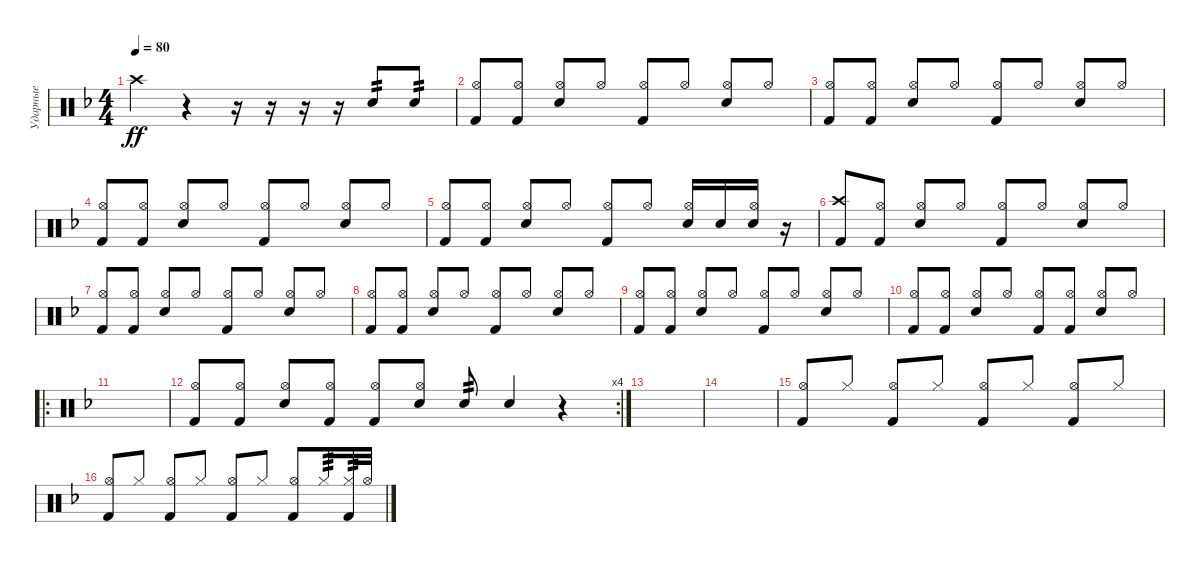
\track ("Ударные" "Ударные") {instrument percussion}
\staff {score}
\articulation defaults
\ts (4 4)
\tempo 80
\clef neutral
\ks f "Crash high (hit)".4{dy ff}
r.4 r.16 r.16 r.16 r.16 "Snare (hit) 2".8{tp 2 beam Up} "Snare (hit) 2".8{tp 2 beam Up} |
("Hi-Hat (open)" "Kick (hit) 2").8{beam Up} ("Hi-Hat (open)" "Kick (hit) 2").8{beam Up} ("Hi-Hat (open)" "Snare (hit) 2").8{beam Up} "Hi-Hat (open)".8{beam Up} ("Hi-Hat (open)" "Kick (hit) 2").8{beam Up} "Hi-Hat (open)".8{beam Up} ("Hi-Hat (open)" "Snare (hit) 2").8{beam Up} "Hi-Hat (open)".8{beam Up} |
("Hi-Hat (open)" "Kick (hit) 2").8{beam Up} ("Hi-Hat (open)" "Kick (hit) 2").8{beam Up} ("Hi-Hat (open)" "Snare (hit) 2").8{beam Up} "Hi-Hat (open)".8{beam Up} ("Hi-Hat (open)" "Kick (hit) 2").8{beam Up} "Hi-Hat (open)".8{beam Up} ("Hi-Hat (open)" "Snare (hit) 2").8{beam Up} "Hi-Hat (open)".8{beam Up} |
("Hi-Hat (open)" "Kick (hit) 2").8{beam Up} ("Hi-Hat (open)" "Kick (hit) 2").8{beam Up} ("Hi-Hat (open)" "Snare (hit) 2").8{beam Up} "Hi-Hat (open)".8{beam Up} ("Hi-Hat (open)" "Kick (hit) 2").8{beam Up} "Hi-Hat (open)".8{beam Up} ("Hi-Hat (open)" "Snare (hit) 2").8{beam Up} "Hi-Hat (open)".8{beam Up} |
("Hi-Hat (open)" "Kick (hit) 2").8{beam Up} ("Hi-Hat (open)" "Kick (hit) 2").8{beam Up} ("Hi-Hat (open)" "Snare (hit) 2").8{beam Up} "Hi-Hat (open)".8{beam Up} ("Hi-Hat (open)" "Kick (hit) 2").8{beam Up} "Hi-Hat (open)".8{beam Up} ("Hi-Hat (open)" "Snare (hit) 2").16{beam Up} "Snare (hit) 2".16{beam Up} ("Hi-Hat (open)" "Snare (hit) 2").16{beam Up} r.16 |
("Crash high (hit)" "Kick (hit) 2").8{beam Up} ("Hi-Hat (open)" "Kick (hit) 2").8{beam Up} ("Hi-Hat (open)" "Snare (hit) 2").8{beam Up} "Hi-Hat (open)".8{beam Up} ("Hi-Hat (open)" "Kick (hit) 2").8{beam Up} "Hi-Hat (open)".8{beam Up} ("Hi-Hat (open)" "Snare (hit) 2").8{beam Up} "Hi-Hat (open)".8{beam Up} |
("Hi-Hat (open)" "Kick (hit) 2").8{beam Up} ("Hi-Hat (open)" "Kick (hit) 2").8{beam Up} ("Hi-Hat (open)" "Snare (hit) 2").8{beam Up} "Hi-Hat (open)".8{beam Up} ("Hi-Hat (open)" "Kick (hit) 2").8{beam Up} "Hi-Hat (open)".8{beam Up} ("Hi-Hat (open)" "Snare (hit) 2").8{beam Up} "Hi-Hat (open)".8{beam Up} |
("Hi-Hat (open)" "Kick (hit) 2").8{beam Up} ("Hi-Hat (open)" "Kick (hit) 2").8{beam Up} ("Hi-Hat (open)" "Snare (hit) 2").8{beam Up} "Hi-Hat (open)".8{beam Up} ("Hi-Hat (open)" "Kick (hit) 2").8{beam Up} "Hi-Hat (open)".8{beam Up} ("Hi-Hat (open)" "Snare (hit) 2").8{beam Up} "Hi-Hat (open)".8{beam Up} |
("Hi-Hat (open)" "Kick (hit) 2").8{beam Up} ("Hi-Hat (open)" "Kick (hit) 2").8{beam Up} ("Hi-Hat (open)" "Snare (hit) 2").8{beam Up} "Hi-Hat (open)".8{beam Up} ("Hi-Hat (open)" "Kick (hit) 2").8{beam Up} "Hi-Hat (open)".8{beam Up} ("Hi-Hat (open)" "Snare (hit) 2").8{beam Up} "Hi-Hat (open)".8{beam Up} |
("Hi-Hat (open)" "Kick (hit) 2").8{beam Up} ("Hi-Hat (open)" "Kick (hit) 2").8{beam Up} ("Hi-Hat (open)" "Snare (hit) 2").8{beam Up} "Hi-Hat (open)".8{beam Up} ("Hi-Hat (open)" "Kick (hit) 2").8{beam Up} ("Hi-Hat (open)" "Kick (hit) 2").8{beam Up} ("Hi-Hat (open)" "Snare (hit) 2").8{beam Up} "Hi-Hat (open)".8{beam Up} |
\ro
|
\rc 4
("Hi-Hat (open)" "Kick (hit) 2").8{beam Up} ("Hi-Hat (open)" "Kick (hit) 2").8{beam Up} ("Hi-Hat (open)" "Snare (hit) 2").8{beam Up} ("Hi-Hat (open)" "Kick (hit) 2").8{beam Up} ("Hi-Hat (open)" "Kick (hit) 2").8{beam Up} ("Hi-Hat (open)" "Snare (hit) 2").8{beam Up} "Snare (hit) 2".8{tp 2 beam Up} "Snare (hit) 2".4{beam Up} r.4 |
|
|
("Hi-Hat (open)" "Kick (hit) 2").8{beam Up} "Hi-Hat (closed)".8{beam Up} ("Hi-Hat (open)" "Kick (hit) 2").8{beam Up} "Hi-Hat (closed)".8{beam Up} ("Hi-Hat (open)" "Kick (hit) 2").8{beam Up} "Hi-Hat (closed)".8{beam Up} ("Hi-Hat (open)" "Kick (hit) 2").8{beam Up} "Hi-Hat (closed)".8{beam Up} |
("Hi-Hat (open)" "Kick (hit) 2").8{beam Up} "Hi-Hat (closed)".8{beam Up} ("Hi-Hat (open)" "Kick (hit) 2").8{beam Up} "Hi-Hat (closed)".8{beam Up} ("Hi-Hat (open)" "Kick (hit) 2").8{beam Up} "Hi-Hat (closed)".8{beam Up} ("Hi-Hat (open)" "Kick (hit) 2").8{beam Up} "Hi-Hat (closed)".16{tp 3 beam Up} ("Hi-Hat (closed)" "Kick (hit) 2").32{tp 2 beam Up} "Hi-Hat (open)".32{beam Up}
